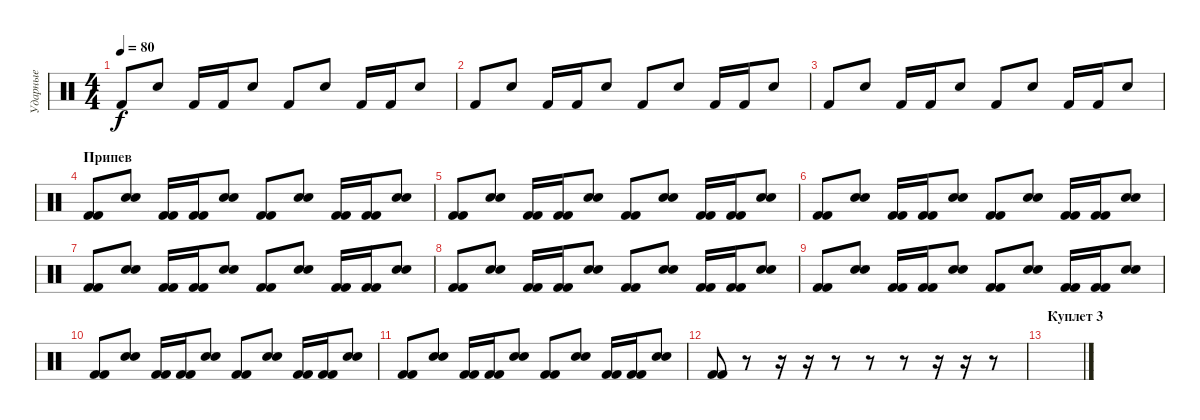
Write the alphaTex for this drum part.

\track ("Ударные" "Ударные") {instrument percussion}
\staff {score}
\articulation defaults
\ts (4 4)
\tempo 80
\clef neutral
\ks c "Kick (hit) 2".8{dy f} "Snare (hit) 2".8 "Kick (hit) 2".16 "Kick (hit) 2".16 "Snare (hit) 2".8 "Kick (hit) 2".8 "Snare (hit) 2".8 "Kick (hit) 2".16 "Kick (hit) 2".16 "Snare (hit) 2".8
|
"Kick (hit) 2".8 "Snare (hit) 2".8 "Kick (hit) 2".16 "Kick (hit) 2".16 "Snare (hit) 2".8 "Kick (hit) 2".8 "Snare (hit) 2".8 "Kick (hit) 2".16 "Kick (hit) 2".16 "Snare (hit) 2".8 |
"Kick (hit) 2".8 "Snare (hit) 2".8 "Kick (hit) 2".16 "Kick (hit) 2".16 "Snare (hit) 2".8 "Kick (hit) 2".8 "Snare (hit) 2".8 "Kick (hit) 2".16 "Kick (hit) 2".16 "Snare (hit) 2".8 |
\section ("" "Припев")
("Kick (hit) 2" "Kick (hit) 2").8 ("Snare (hit) 2" "Snare (hit) 2").8 ("Kick (hit) 2" "Kick (hit) 2").16 ("Kick (hit) 2" "Kick (hit) 2").16 ("Snare (hit) 2" "Snare (hit) 2").8 ("Kick (hit) 2" "Kick (hit) 2").8 ("Snare (hit) 2" "Snare (hit) 2").8 ("Kick (hit) 2" "Kick (hit) 2").16 ("Kick (hit) 2" "Kick (hit) 2").16 ("Snare (hit) 2" "Snare (hit) 2").8 |
("Kick (hit) 2" "Kick (hit) 2").8 ("Snare (hit) 2" "Snare (hit) 2").8 ("Kick (hit) 2" "Kick (hit) 2").16 ("Kick (hit) 2" "Kick (hit) 2").16 ("Snare (hit) 2" "Snare (hit) 2").8 ("Kick (hit) 2" "Kick (hit) 2").8 ("Snare (hit) 2" "Snare (hit) 2").8 ("Kick (hit) 2" "Kick (hit) 2").16 ("Kick (hit) 2" "Kick (hit) 2").16 ("Snare (hit) 2" "Snare (hit) 2").8 |
("Kick (hit) 2" "Kick (hit) 2").8 ("Snare (hit) 2" "Snare (hit) 2").8 ("Kick (hit) 2" "Kick (hit) 2").16 ("Kick (hit) 2" "Kick (hit) 2").16 ("Snare (hit) 2" "Snare (hit) 2").8 ("Kick (hit) 2" "Kick (hit) 2").8 ("Snare (hit) 2" "Snare (hit) 2").8 ("Kick (hit) 2" "Kick (hit) 2").16 ("Kick (hit) 2" "Kick (hit) 2").16 ("Snare (hit) 2" "Snare (hit) 2").8 |
("Kick (hit) 2" "Kick (hit) 2").8 ("Snare (hit) 2" "Snare (hit) 2").8 ("Kick (hit) 2" "Kick (hit) 2").16 ("Kick (hit) 2" "Kick (hit) 2").16 ("Snare (hit) 2" "Snare (hit) 2").8 ("Kick (hit) 2" "Kick (hit) 2").8 ("Snare (hit) 2" "Snare (hit) 2").8 ("Kick (hit) 2" "Kick (hit) 2").16 ("Kick (hit) 2" "Kick (hit) 2").16 ("Snare (hit) 2" "Snare (hit) 2").8 |
("Kick (hit) 2" "Kick (hit) 2").8 ("Snare (hit) 2" "Snare (hit) 2").8 ("Kick (hit) 2" "Kick (hit) 2").16 ("Kick (hit) 2" "Kick (hit) 2").16 ("Snare (hit) 2" "Snare (hit) 2").8 ("Kick (hit) 2" "Kick (hit) 2").8 ("Snare (hit) 2" "Snare (hit) 2").8 ("Kick (hit) 2" "Kick (hit) 2").16 ("Kick (hit) 2" "Kick (hit) 2").16 ("Snare (hit) 2" "Snare (hit) 2").8 |
("Kick (hit) 2" "Kick (hit) 2").8 ("Snare (hit) 2" "Snare (hit) 2").8 ("Kick (hit) 2" "Kick (hit) 2").16 ("Kick (hit) 2" "Kick (hit) 2").16 ("Snare (hit) 2" "Snare (hit) 2").8 ("Kick (hit) 2" "Kick (hit) 2").8 ("Snare (hit) 2" "Snare (hit) 2").8 ("Kick (hit) 2" "Kick (hit) 2").16 ("Kick (hit) 2" "Kick (hit) 2").16 ("Snare (hit) 2" "Snare (hit) 2").8 |
("Kick (hit) 2" "Kick (hit) 2").8 ("Snare (hit) 2" "Snare (hit) 2").8 ("Kick (hit) 2" "Kick (hit) 2").16 ("Kick (hit) 2" "Kick (hit) 2").16 ("Snare (hit) 2" "Snare (hit) 2").8 ("Kick (hit) 2" "Kick (hit) 2").8 ("Snare (hit) 2" "Snare (hit) 2").8 ("Kick (hit) 2" "Kick (hit) 2").16 ("Kick (hit) 2" "Kick (hit) 2").16 ("Snare (hit) 2" "Snare (hit) 2").8 |
("Kick (hit) 2" "Kick (hit) 2").8 ("Snare (hit) 2" "Snare (hit) 2").8 ("Kick (hit) 2" "Kick (hit) 2").16 ("Kick (hit) 2" "Kick (hit) 2").16 ("Snare (hit) 2" "Snare (hit) 2").8 ("Kick (hit) 2" "Kick (hit) 2").8 ("Snare (hit) 2" "Snare (hit) 2").8 ("Kick (hit) 2" "Kick (hit) 2").16 ("Kick (hit) 2" "Kick (hit) 2").16 ("Snare (hit) 2" "Snare (hit) 2").8 |
("Kick (hit) 2" "Kick (hit) 2").8 r.8 r.16 r.16 r.8 r.8 r.8 r.16 r.16 r.8 |
\section ("" "Куплет 3")
